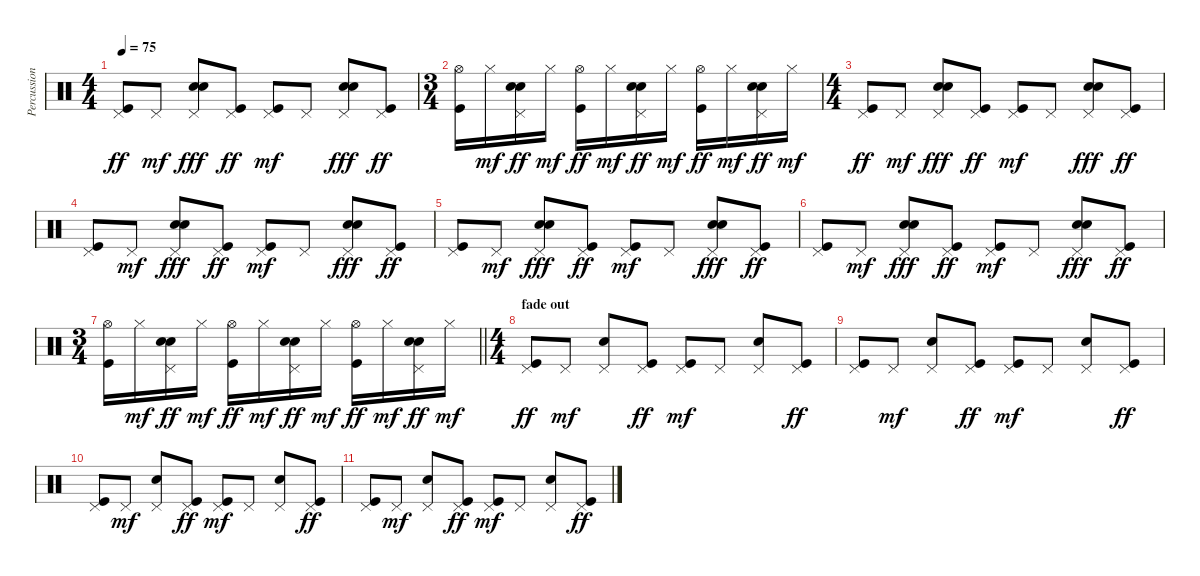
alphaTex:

\track ("Percussion" "Percussion") {instrument percussion}
\staff {score}
\articulation defaults
\ts (4 4)
\tempo 75
\clef neutral
\ks c
("Pedal Hi-Hat (hit)" "Kick (hit)").8{dy ff} "Pedal Hi-Hat (hit)".8{dy mf} ("Pedal Hi-Hat (hit)" "Hand Clap (hit)" "Electric Snare (hit)").8{dy fff} ("Pedal Hi-Hat (hit)" "Kick (hit)").8{dy ff} ("Pedal Hi-Hat (hit)" "Kick (hit)").8{dy mf} "Pedal Hi-Hat (hit)".8 ("Pedal Hi-Hat (hit)" "Hand Clap (hit)" "Electric Snare (hit)").8{dy fff} ("Pedal Hi-Hat (hit)" "Kick (hit)").8{dy ff} |
\ts (3 4)
("Hi-Hat (open)" "Kick (hit)").16 "Hi-Hat (closed)".16{dy mf} ("Pedal Hi-Hat (hit)" "Hand Clap (hit)" "Snare (hit) 2").16{dy ff} "Hi-Hat (closed)".16{dy mf} ("Hi-Hat (open)" "Kick (hit)").16{dy ff} "Hi-Hat (closed)".16{dy mf} ("Pedal Hi-Hat (hit)" "Hand Clap (hit)" "Snare (hit) 2").16{dy ff} "Hi-Hat (closed)".16{dy mf} ("Hi-Hat (open)" "Kick (hit)").16{dy ff} "Hi-Hat (closed)".16{dy mf} ("Pedal Hi-Hat (hit)" "Hand Clap (hit)" "Snare (hit) 2").16{dy ff} "Hi-Hat (closed)".16{dy mf} |
\ts (4 4)
("Pedal Hi-Hat (hit)" "Kick (hit)").8{dy ff} "Pedal Hi-Hat (hit)".8{dy mf} ("Pedal Hi-Hat (hit)" "Hand Clap (hit)" "Electric Snare (hit)").8{dy fff} ("Pedal Hi-Hat (hit)" "Kick (hit)").8{dy ff} ("Pedal Hi-Hat (hit)" "Kick (hit)").8{dy mf} "Pedal Hi-Hat (hit)".8 ("Pedal Hi-Hat (hit)" "Hand Clap (hit)" "Electric Snare (hit)").8{dy fff} ("Pedal Hi-Hat (hit)" "Kick (hit)").8{dy ff} |
("Pedal Hi-Hat (hit)" "Kick (hit)").8 "Pedal Hi-Hat (hit)".8{dy mf} ("Pedal Hi-Hat (hit)" "Hand Clap (hit)" "Electric Snare (hit)").8{dy fff} ("Pedal Hi-Hat (hit)" "Kick (hit)").8{dy ff} ("Pedal Hi-Hat (hit)" "Kick (hit)").8{dy mf} "Pedal Hi-Hat (hit)".8 ("Pedal Hi-Hat (hit)" "Hand Clap (hit)" "Electric Snare (hit)").8{dy fff} ("Pedal Hi-Hat (hit)" "Kick (hit)").8{dy ff} |
("Pedal Hi-Hat (hit)" "Kick (hit)").8 "Pedal Hi-Hat (hit)".8{dy mf} ("Pedal Hi-Hat (hit)" "Hand Clap (hit)" "Electric Snare (hit)").8{dy fff} ("Pedal Hi-Hat (hit)" "Kick (hit)").8{dy ff} ("Pedal Hi-Hat (hit)" "Kick (hit)").8{dy mf} "Pedal Hi-Hat (hit)".8 ("Pedal Hi-Hat (hit)" "Hand Clap (hit)" "Electric Snare (hit)").8{dy fff} ("Pedal Hi-Hat (hit)" "Kick (hit)").8{dy ff} |
("Pedal Hi-Hat (hit)" "Kick (hit)").8 "Pedal Hi-Hat (hit)".8{dy mf} ("Pedal Hi-Hat (hit)" "Hand Clap (hit)" "Electric Snare (hit)").8{dy fff} ("Pedal Hi-Hat (hit)" "Kick (hit)").8{dy ff} ("Pedal Hi-Hat (hit)" "Kick (hit)").8{dy mf} "Pedal Hi-Hat (hit)".8 ("Pedal Hi-Hat (hit)" "Hand Clap (hit)" "Electric Snare (hit)").8{dy fff} ("Pedal Hi-Hat (hit)" "Kick (hit)").8{dy ff} |
\ts (3 4)
\barLineRight lightlight
("Hi-Hat (open)" "Kick (hit)").16 "Hi-Hat (closed)".16{dy mf} ("Pedal Hi-Hat (hit)" "Hand Clap (hit)" "Snare (hit) 2").16{dy ff} "Hi-Hat (closed)".16{dy mf} ("Hi-Hat (open)" "Kick (hit)").16{dy ff} "Hi-Hat (closed)".16{dy mf} ("Pedal Hi-Hat (hit)" "Hand Clap (hit)" "Snare (hit) 2").16{dy ff} "Hi-Hat (closed)".16{dy mf} ("Hi-Hat (open)" "Kick (hit)").16{dy ff} "Hi-Hat (closed)".16{dy mf} ("Pedal Hi-Hat (hit)" "Hand Clap (hit)" "Snare (hit) 2").16{dy ff} "Hi-Hat (closed)".16{dy mf} |
\ts (4 4)
\section ("" "fade out")
("Pedal Hi-Hat (hit)" "Kick (hit)").8{dy ff} "Pedal Hi-Hat (hit)".8{dy mf} ("Pedal Hi-Hat (hit)" "Electric Snare (hit)").8 ("Pedal Hi-Hat (hit)" "Kick (hit)").8{dy ff} ("Pedal Hi-Hat (hit)" "Kick (hit)").8{dy mf} "Pedal Hi-Hat (hit)".8 ("Pedal Hi-Hat (hit)" "Electric Snare (hit)").8 ("Pedal Hi-Hat (hit)" "Kick (hit)").8{dy ff} |
("Pedal Hi-Hat (hit)" "Kick (hit)").8 "Pedal Hi-Hat (hit)".8{dy mf} ("Pedal Hi-Hat (hit)" "Electric Snare (hit)").8 ("Pedal Hi-Hat (hit)" "Kick (hit)").8{dy ff} ("Pedal Hi-Hat (hit)" "Kick (hit)").8{dy mf} "Pedal Hi-Hat (hit)".8 ("Pedal Hi-Hat (hit)" "Electric Snare (hit)").8 ("Pedal Hi-Hat (hit)" "Kick (hit)").8{dy ff} |
("Pedal Hi-Hat (hit)" "Kick (hit)").8 "Pedal Hi-Hat (hit)".8{dy mf} ("Pedal Hi-Hat (hit)" "Electric Snare (hit)").8 ("Pedal Hi-Hat (hit)" "Kick (hit)").8{dy ff} ("Pedal Hi-Hat (hit)" "Kick (hit)").8{dy mf} "Pedal Hi-Hat (hit)".8 ("Pedal Hi-Hat (hit)" "Electric Snare (hit)").8 ("Pedal Hi-Hat (hit)" "Kick (hit)").8{dy ff} |
("Pedal Hi-Hat (hit)" "Kick (hit)").8 "Pedal Hi-Hat (hit)".8{dy mf} ("Pedal Hi-Hat (hit)" "Electric Snare (hit)").8 ("Pedal Hi-Hat (hit)" "Kick (hit)").8{dy ff} ("Pedal Hi-Hat (hit)" "Kick (hit)").8{dy mf} "Pedal Hi-Hat (hit)".8 ("Pedal Hi-Hat (hit)" "Electric Snare (hit)").8 ("Pedal Hi-Hat (hit)" "Kick (hit)").8{dy ff}
